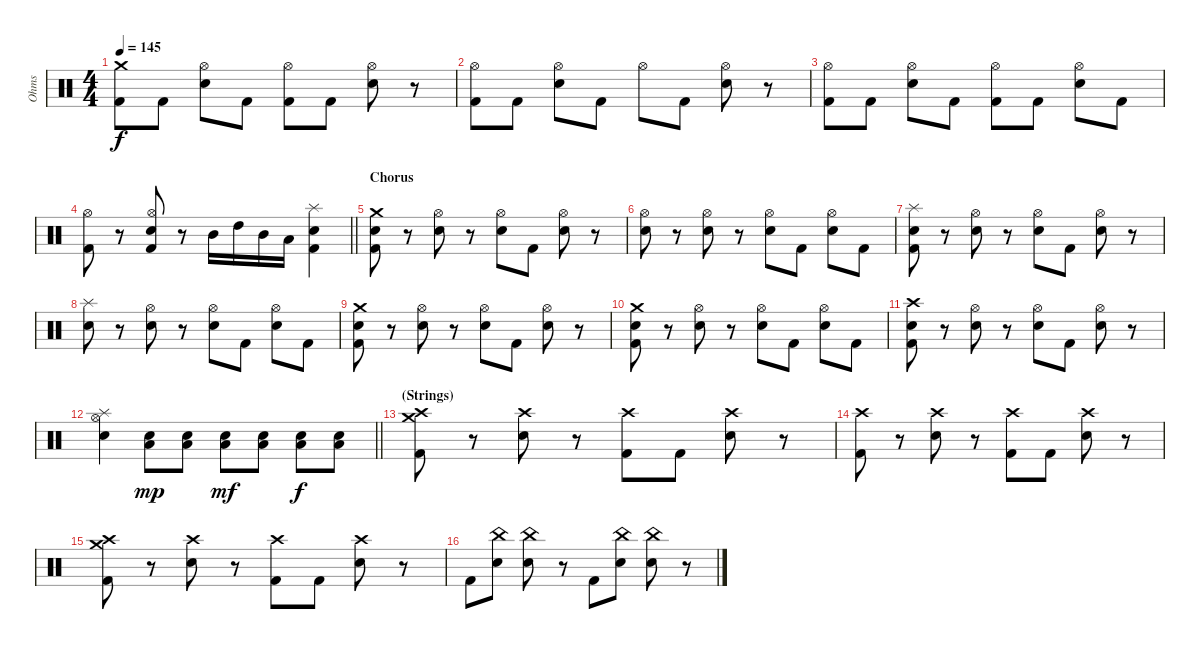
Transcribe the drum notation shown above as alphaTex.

\track ("Ohms" "Ohms") {instrument percussion}
\staff {score}
\articulation defaults
\ts (4 4)
\tempo 145
\clef neutral
\ks c
("Crash medium (hit)" "Kick (hit) 2").8{dy f} "Kick (hit) 2".8 ("Hi-Hat (open)" "Snare (hit) 2").8 "Kick (hit) 2".8 ("Hi-Hat (open)" "Kick (hit) 2").8 "Kick (hit) 2".8 ("Hi-Hat (open)" "Snare (hit) 2").8 r.8 |
("Hi-Hat (open)" "Kick (hit) 2").8 "Kick (hit) 2".8 ("Hi-Hat (open)" "Snare (hit) 2").8 "Kick (hit) 2".8 "Hi-Hat (open)".8 "Kick (hit) 2".8 ("Hi-Hat (open)" "Snare (hit) 2").8 r.8 |
("Hi-Hat (open)" "Kick (hit) 2").8 "Kick (hit) 2".8 ("Hi-Hat (open)" "Snare (hit) 2").8 "Kick (hit) 2".8 ("Hi-Hat (open)" "Kick (hit) 2").8 "Kick (hit) 2".8 ("Hi-Hat (open)" "Snare (hit) 2").8 "Kick (hit) 2".8 |
\barLineRight lightlight
("Hi-Hat (open)" "Kick (hit) 2").8 r.8 ("Hi-Hat (open)" "Snare (hit) 2" "Kick (hit) 2").8 r.8 "Mid Tom (hit)".16 "High Tom (hit)".16 "Mid Tom (hit)".16 "Low Tom (hit)".16 ("Splash (hit)" "Snare (hit) 2" "Kick (hit) 2").4 |
\section ("" "Chorus")
("Crash medium (hit)" "Snare (hit) 2" "Kick (hit) 2").8 r.8 ("Hi-Hat (open)" "Snare (hit) 2").8 r.8 ("Hi-Hat (open)" "Snare (hit) 2").8 "Kick (hit) 2".8 ("Hi-Hat (open)" "Snare (hit) 2").8 r.8 |
("Hi-Hat (open)" "Snare (hit) 2").8 r.8 ("Hi-Hat (open)" "Snare (hit) 2").8 r.8 ("Hi-Hat (open)" "Snare (hit) 2").8 "Kick (hit) 2".8 ("Hi-Hat (open)" "Snare (hit) 2").8 "Kick (hit) 2".8 |
("Splash (hit)" "Snare (hit) 2" "Kick (hit) 2").8 r.8 ("Hi-Hat (open)" "Snare (hit) 2").8 r.8 ("Hi-Hat (open)" "Snare (hit) 2").8 "Kick (hit) 2".8 ("Hi-Hat (open)" "Snare (hit) 2").8 r.8 |
("Splash (hit)" "Snare (hit) 2").8 r.8 ("Hi-Hat (open)" "Snare (hit) 2").8 r.8 ("Hi-Hat (open)" "Snare (hit) 2").8 "Kick (hit) 2".8 ("Hi-Hat (open)" "Snare (hit) 2").8 "Kick (hit) 2".8 |
("Crash medium (hit)" "Snare (hit) 2" "Kick (hit) 2").8 r.8 ("Hi-Hat (open)" "Snare (hit) 2").8 r.8 ("Hi-Hat (open)" "Snare (hit) 2").8 "Kick (hit) 2".8 ("Hi-Hat (open)" "Snare (hit) 2").8 r.8 |
("Crash medium (hit)" "Snare (hit) 2" "Kick (hit) 2").8 r.8 ("Hi-Hat (open)" "Snare (hit) 2").8 r.8 ("Hi-Hat (open)" "Snare (hit) 2").8 "Kick (hit) 2".8 ("Hi-Hat (open)" "Snare (hit) 2").8 "Kick (hit) 2".8 |
("Crash high (hit)" "Snare (hit) 2" "Kick (hit) 2").8 r.8 ("Hi-Hat (open)" "Snare (hit) 2").8 r.8 ("Hi-Hat (open)" "Snare (hit) 2").8 "Kick (hit) 2".8 ("Hi-Hat (open)" "Snare (hit) 2").8 r.8 |
\barLineRight lightlight
("Hi-Hat (open)" "Splash (hit)" "Snare (hit) 2").4 ("Low Tom (hit)" "Snare (hit) 2").8{dy mp} ("Low Tom (hit)" "Snare (hit) 2").8 ("Low Tom (hit)" "Snare (hit) 2").8{dy mf} ("Low Tom (hit)" "Snare (hit) 2").8 ("Low Tom (hit)" "Snare (hit) 2").8{dy f} ("Low Tom (hit)" "Snare (hit) 2").8 |
\section ("" "(Strings)")
("Crash high (hit)" "Crash medium (hit)" "Kick (hit) 2").8 r.8 ("Crash high (hit)" "Snare (hit) 2").8 r.8 ("Crash high (hit)" "Kick (hit) 2").8 "Kick (hit) 2".8 ("Crash high (hit)" "Snare (hit) 2").8 r.8 |
("Crash high (hit)" "Kick (hit) 2").8 r.8 ("Crash high (hit)" "Snare (hit) 2").8 r.8 ("Crash high (hit)" "Kick (hit) 2").8 "Kick (hit) 2".8 ("Crash high (hit)" "Snare (hit) 2").8 r.8 |
("Crash high (hit)" "Crash medium (hit)" "Kick (hit) 2").8 r.8 ("Crash high (hit)" "Snare (hit) 2").8 r.8 ("Crash high (hit)" "Kick (hit) 2").8 "Kick (hit) 2".8 ("Crash high (hit)" "Snare (hit) 2").8 r.8 |
"Kick (hit) 2".8 ("China (hit)" "Snare (hit) 2").8 ("China (hit)" "Snare (hit) 2").8 r.8 "Kick (hit) 2".8 ("China (hit)" "Snare (hit) 2").8 ("China (hit)" "Snare (hit) 2").8 r.8
